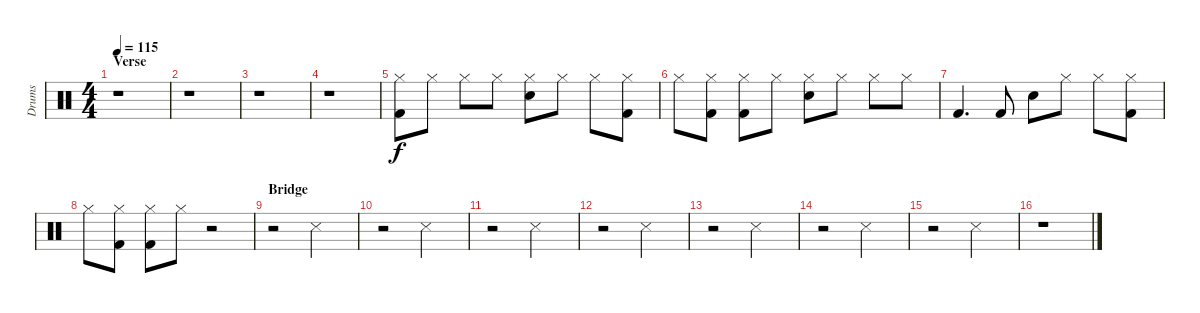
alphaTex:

\track ("Drums" "Drums") {instrument percussion}
\staff {score}
\articulation defaults
\ts (4 4)
\section ("" "Verse")
\tempo 115
\clef neutral
\ks c
r.1{dy f} |
r.1 |
r.1 |
r.1 |
("Hi-Hat (closed)" "Kick (hit) 2").8 "Hi-Hat (closed)".8 "Hi-Hat (closed)".8 "Hi-Hat (closed)".8 ("Hi-Hat (closed)" "Snare (hit) 2").8 "Hi-Hat (closed)".8 "Hi-Hat (closed)".8 ("Hi-Hat (closed)" "Kick (hit) 2").8 |
"Hi-Hat (closed)".8 ("Hi-Hat (closed)" "Kick (hit) 2").8 ("Hi-Hat (closed)" "Kick (hit) 2").8 "Hi-Hat (closed)".8 ("Hi-Hat (closed)" "Snare (hit) 2").8 "Hi-Hat (closed)".8 "Hi-Hat (closed)".8 "Hi-Hat (closed)".8 |
"Kick (hit) 2".4{d} "Kick (hit) 2".8 "Snare (hit) 2".8 "Hi-Hat (closed)".8 "Hi-Hat (closed)".8 ("Hi-Hat (closed)" "Kick (hit) 2").8 |
"Hi-Hat (closed)".8 ("Hi-Hat (closed)" "Kick (hit) 2").8 ("Hi-Hat (closed)" "Kick (hit) 2").8 "Hi-Hat (closed)".8 r.2 |
\section ("" "Bridge")
r.2 "Snare (side stick) 3".2 |
r.2 "Snare (side stick) 3".2 |
r.2 "Snare (side stick) 3".2 |
r.2 "Snare (side stick) 3".2 |
r.2 "Snare (side stick) 3".2 |
r.2 "Snare (side stick) 3".2 |
r.2 "Snare (side stick) 3".2 |
r.1
